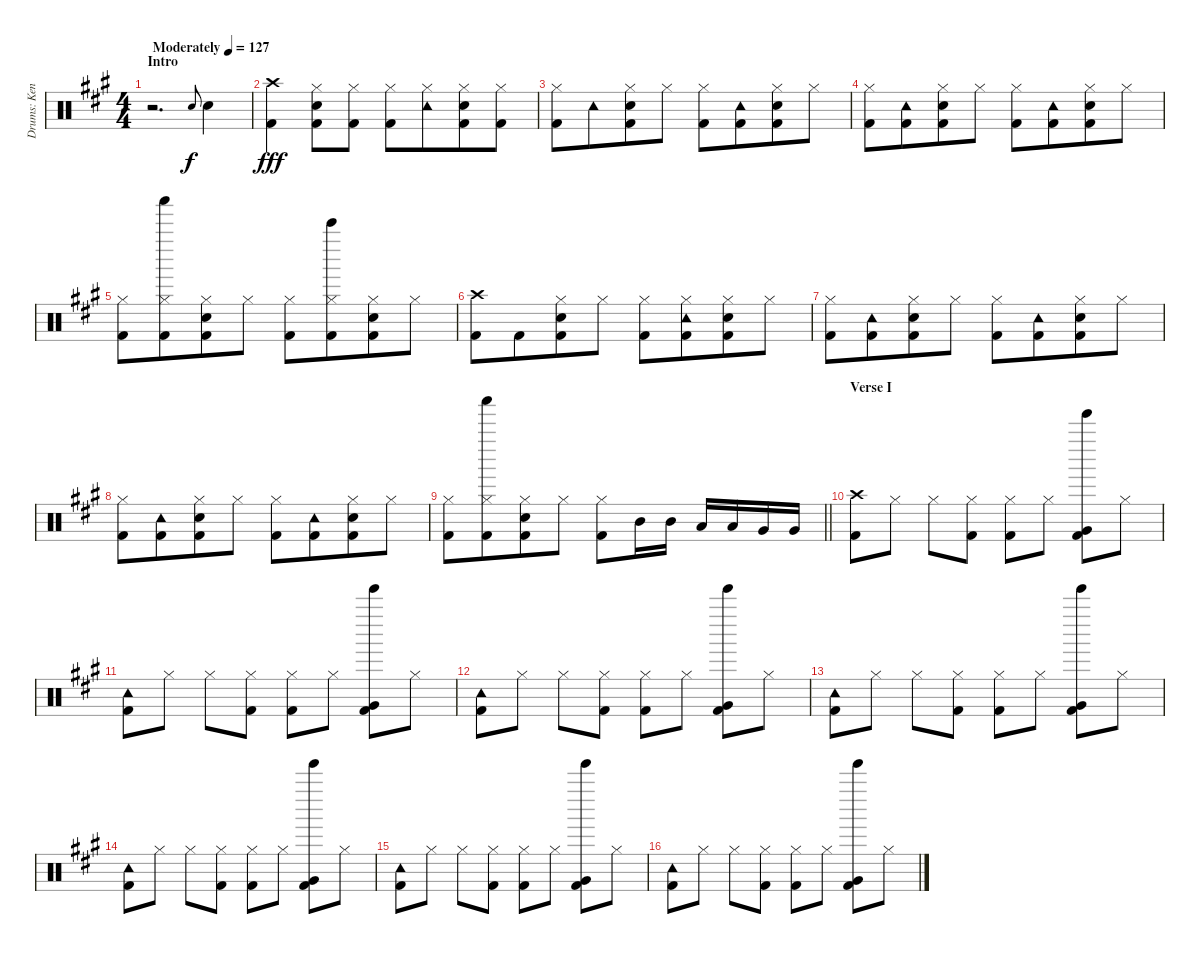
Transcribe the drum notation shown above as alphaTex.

\track ("Drums: Kenny" "Drums: Ken") {instrument percussion}
\staff {score}
\articulation defaults
\ts (4 4)
\section ("" "Intro")
\tempo (127 "Moderately")
\clef neutral
\ks a
r.2{d dy f} "Electric Snare (hit)".8{gr onbeat} "Snare (hit) 2".4 |
("Crash high (hit)" "Kick (hit) 2").4{dy fff beam merge} ("Hi-Hat (closed)" "Snare (hit) 2" "Kick (hit) 2").8 ("Hi-Hat (closed)" "Kick (hit) 2").8 ("Hi-Hat (closed)" "Kick (hit) 2").8 ("Tambourine (hit)" "Hi-Hat (closed)").8{beam merge} ("Hi-Hat (closed)" "Snare (hit) 2" "Kick (hit) 2").8 ("Hi-Hat (closed)" "Kick (hit) 2").8 |
("Hi-Hat (closed)" "Kick (hit) 2").8 "Tambourine (hit)".8{beam merge} ("Hi-Hat (closed)" "Snare (hit) 2" "Kick (hit) 2").8 "Hi-Hat (closed)".8 ("Hi-Hat (closed)" "Kick (hit) 2").8 ("Tambourine (hit)" "Kick (hit) 2").8{beam merge} ("Hi-Hat (closed)" "Snare (hit) 2" "Kick (hit) 2").8 "Hi-Hat (closed)".8 |
("Hi-Hat (closed)" "Kick (hit) 2").8 ("Tambourine (hit)" "Kick (hit) 2").8{beam merge} ("Hi-Hat (closed)" "Snare (hit) 2" "Kick (hit) 2").8 "Hi-Hat (closed)".8 ("Hi-Hat (closed)" "Kick (hit) 2").8 ("Tambourine (hit)" "Kick (hit) 2").8{beam merge} ("Hi-Hat (closed)" "Snare (hit) 2" "Kick (hit) 2").8 "Hi-Hat (closed)".8 |
("Hi-Hat (closed)" "Kick (hit) 2").8 ("Shaker (hit)" "Hi-Hat (closed)" "Kick (hit) 2").8{beam merge} ("Hi-Hat (closed)" "Snare (hit) 2" "Kick (hit) 2").8 "Hi-Hat (closed)".8 ("Hi-Hat (closed)" "Kick (hit) 2").8 ("Bell Tree (hit)" "Hi-Hat (closed)" "Kick (hit) 2").8{beam merge} ("Hi-Hat (closed)" "Snare (hit) 2" "Kick (hit) 2").8 "Hi-Hat (closed)".8 |
("Crash high (hit)" "Kick (hit) 2").8 "Kick (hit) 2".8{beam merge} ("Hi-Hat (closed)" "Snare (hit) 2" "Kick (hit) 2").8 "Hi-Hat (closed)".8 ("Hi-Hat (closed)" "Kick (hit) 2").8 ("Tambourine (hit)" "Hi-Hat (closed)" "Kick (hit) 2").8{beam merge} ("Hi-Hat (closed)" "Snare (hit) 2" "Kick (hit) 2").8 "Hi-Hat (closed)".8 |
("Hi-Hat (closed)" "Kick (hit) 2").8 ("Tambourine (hit)" "Kick (hit) 2").8{beam merge} ("Hi-Hat (closed)" "Snare (hit) 2" "Kick (hit) 2").8 "Hi-Hat (closed)".8 ("Hi-Hat (closed)" "Kick (hit) 2").8 ("Tambourine (hit)" "Kick (hit) 2").8{beam merge} ("Hi-Hat (closed)" "Snare (hit) 2" "Kick (hit) 2").8 "Hi-Hat (closed)".8 |
("Hi-Hat (closed)" "Kick (hit) 2").8 ("Tambourine (hit)" "Kick (hit) 2").8{beam merge} ("Hi-Hat (closed)" "Snare (hit) 2" "Kick (hit) 2").8 "Hi-Hat (closed)".8 ("Hi-Hat (closed)" "Kick (hit) 2").8 ("Tambourine (hit)" "Kick (hit) 2").8{beam merge} ("Hi-Hat (closed)" "Snare (hit) 2" "Kick (hit) 2").8 "Hi-Hat (closed)".8 |
\barLineRight lightlight
("Hi-Hat (closed)" "Kick (hit) 2").8 ("Shaker (hit)" "Hi-Hat (closed)" "Kick (hit) 2").8{beam merge} ("Hi-Hat (closed)" "Snare (hit) 2" "Kick (hit) 2").8 "Hi-Hat (closed)".8 ("Hi-Hat (closed)" "Kick (hit) 2").8 "Mid Tom (hit)".16 "Mid Tom (hit)".16 "Low Tom (hit)".16 "Low Tom (hit)".16 "Very Low Tom (hit)".16 "Very Low Tom (hit)".16 |
\section ("" "Verse I")
("Crash high (hit)" "Kick (hit) 2").8 "Hi-Hat (closed)".8 "Hi-Hat (closed)".8 ("Hi-Hat (closed)" "Kick (hit) 2").8 ("Hi-Hat (closed)" "Kick (hit) 2").8 "Hi-Hat (closed)".8 ("Tinkle Bell (hit)" "Very Low Tom (hit)" "Kick (hit) 2").8 "Hi-Hat (closed)".8 |
("Tambourine (hit)" "Kick (hit) 2").8 "Hi-Hat (closed)".8 "Hi-Hat (closed)".8 ("Hi-Hat (closed)" "Kick (hit) 2").8 ("Hi-Hat (closed)" "Kick (hit) 2").8 "Hi-Hat (closed)".8 ("Tinkle Bell (hit)" "Very Low Tom (hit)" "Kick (hit) 2").8 "Hi-Hat (closed)".8 |
("Tambourine (hit)" "Kick (hit) 2").8 "Hi-Hat (closed)".8 "Hi-Hat (closed)".8 ("Hi-Hat (closed)" "Kick (hit) 2").8 ("Hi-Hat (closed)" "Kick (hit) 2").8 "Hi-Hat (closed)".8 ("Tinkle Bell (hit)" "Very Low Tom (hit)" "Kick (hit) 2").8 "Hi-Hat (closed)".8 |
("Tambourine (hit)" "Kick (hit) 2").8 "Hi-Hat (closed)".8 "Hi-Hat (closed)".8 ("Hi-Hat (closed)" "Kick (hit) 2").8 ("Hi-Hat (closed)" "Kick (hit) 2").8 "Hi-Hat (closed)".8 ("Tinkle Bell (hit)" "Very Low Tom (hit)" "Kick (hit) 2").8 "Hi-Hat (closed)".8 |
("Tambourine (hit)" "Kick (hit) 2").8 "Hi-Hat (closed)".8 "Hi-Hat (closed)".8 ("Hi-Hat (closed)" "Kick (hit) 2").8 ("Hi-Hat (closed)" "Kick (hit) 2").8 "Hi-Hat (closed)".8 ("Tinkle Bell (hit)" "Very Low Tom (hit)" "Kick (hit) 2").8 "Hi-Hat (closed)".8 |
("Tambourine (hit)" "Kick (hit) 2").8 "Hi-Hat (closed)".8 "Hi-Hat (closed)".8 ("Hi-Hat (closed)" "Kick (hit) 2").8 ("Hi-Hat (closed)" "Kick (hit) 2").8 "Hi-Hat (closed)".8 ("Tinkle Bell (hit)" "Very Low Tom (hit)" "Kick (hit) 2").8 "Hi-Hat (closed)".8 |
("Tambourine (hit)" "Kick (hit) 2").8 "Hi-Hat (closed)".8 "Hi-Hat (closed)".8 ("Hi-Hat (closed)" "Kick (hit) 2").8 ("Hi-Hat (closed)" "Kick (hit) 2").8 "Hi-Hat (closed)".8 ("Tinkle Bell (hit)" "Very Low Tom (hit)" "Kick (hit) 2").8 "Hi-Hat (closed)".8
